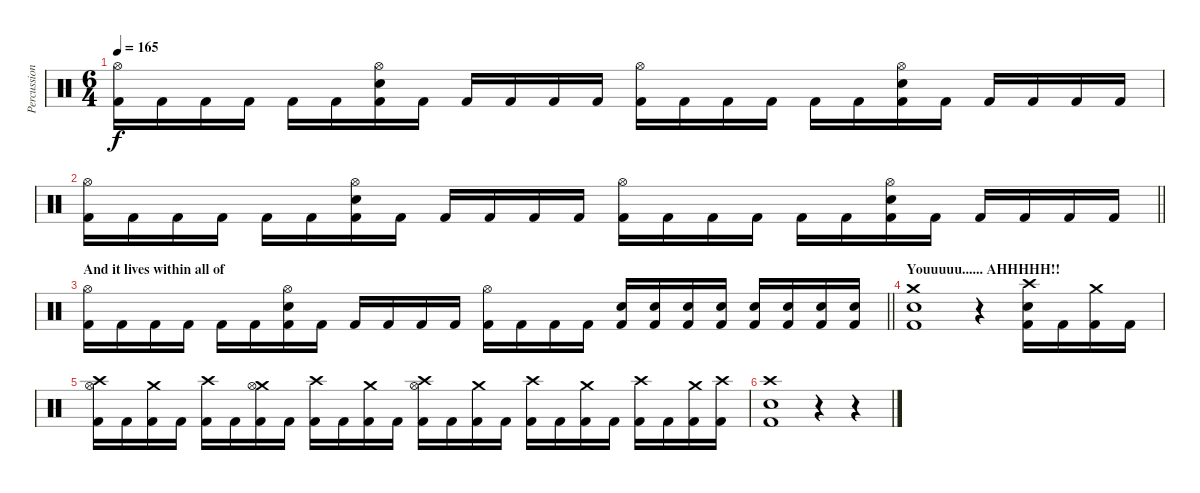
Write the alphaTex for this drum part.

\track ("Percussion" "Percussion") {instrument percussion}
\staff {score}
\articulation defaults
\ts (6 4)
\tempo 165
\clef neutral
\ks c
("Hi-Hat (open)" "Kick (hit) 2").16{dy f} "Kick (hit) 2".16 "Kick (hit) 2".16 "Kick (hit) 2".16 "Kick (hit) 2".16 "Kick (hit) 2".16 ("Hi-Hat (open)" "Electric Snare (hit)" "Kick (hit) 2").16 "Kick (hit) 2".16 "Kick (hit) 2".16 "Kick (hit) 2".16 "Kick (hit) 2".16 "Kick (hit) 2".16 ("Hi-Hat (open)" "Kick (hit) 2").16 "Kick (hit) 2".16 "Kick (hit) 2".16 "Kick (hit) 2".16 "Kick (hit) 2".16 "Kick (hit) 2".16 ("Hi-Hat (open)" "Electric Snare (hit)" "Kick (hit) 2").16 "Kick (hit) 2".16 "Kick (hit) 2".16 "Kick (hit) 2".16 "Kick (hit) 2".16 "Kick (hit) 2".16 |
\barLineRight lightlight
("Hi-Hat (open)" "Kick (hit) 2").16 "Kick (hit) 2".16 "Kick (hit) 2".16 "Kick (hit) 2".16 "Kick (hit) 2".16 "Kick (hit) 2".16 ("Hi-Hat (open)" "Electric Snare (hit)" "Kick (hit) 2").16 "Kick (hit) 2".16 "Kick (hit) 2".16 "Kick (hit) 2".16 "Kick (hit) 2".16 "Kick (hit) 2".16 ("Hi-Hat (open)" "Kick (hit) 2").16 "Kick (hit) 2".16 "Kick (hit) 2".16 "Kick (hit) 2".16 "Kick (hit) 2".16 "Kick (hit) 2".16 ("Hi-Hat (open)" "Electric Snare (hit)" "Kick (hit) 2").16 "Kick (hit) 2".16 "Kick (hit) 2".16 "Kick (hit) 2".16 "Kick (hit) 2".16 "Kick (hit) 2".16 |
\section ("" "And it lives within all of")
\barLineRight lightlight
("Hi-Hat (open)" "Kick (hit) 2").16 "Kick (hit) 2".16 "Kick (hit) 2".16 "Kick (hit) 2".16 "Kick (hit) 2".16 "Kick (hit) 2".16 ("Hi-Hat (open)" "Electric Snare (hit)" "Kick (hit) 2").16 "Kick (hit) 2".16 "Kick (hit) 2".16 "Kick (hit) 2".16 "Kick (hit) 2".16 "Kick (hit) 2".16 ("Hi-Hat (open)" "Kick (hit) 2").16 "Kick (hit) 2".16 "Kick (hit) 2".16 "Kick (hit) 2".16 ("Electric Snare (hit)" "Kick (hit) 2").16 ("Electric Snare (hit)" "Kick (hit) 2").16 ("Electric Snare (hit)" "Kick (hit) 2").16 ("Electric Snare (hit)" "Kick (hit) 2").16 ("Electric Snare (hit)" "Kick (hit) 2").16 ("Electric Snare (hit)" "Kick (hit) 2").16 ("Electric Snare (hit)" "Kick (hit) 2").16 ("Electric Snare (hit)" "Kick (hit) 2").16 |
\section ("" "Youuuuu...... AHHHHH!!")
("Crash medium (hit)" "Electric Snare (hit)" "Kick (hit) 2").1 r.4 ("Crash high (hit)" "Electric Snare (hit)" "Kick (hit) 2").16 "Kick (hit) 2".16 ("Crash medium (hit)" "Kick (hit) 2").16 "Kick (hit) 2".16 |
("Crash high (hit)" "Hi-Hat (open)" "Kick (hit) 2").16 "Kick (hit) 2".16 ("Crash medium (hit)" "Kick (hit) 2").16 "Kick (hit) 2".16 ("Crash high (hit)" "Kick (hit) 2").16 "Kick (hit) 2".16 ("Crash medium (hit)" "Hi-Hat (open)" "Kick (hit) 2").16 "Kick (hit) 2".16 ("Crash high (hit)" "Kick (hit) 2").16 "Kick (hit) 2".16 ("Crash medium (hit)" "Kick (hit) 2").16 "Kick (hit) 2".16 ("Crash high (hit)" "Hi-Hat (open)" "Kick (hit) 2").16 "Kick (hit) 2".16 ("Crash medium (hit)" "Kick (hit) 2").16 "Kick (hit) 2".16 ("Crash high (hit)" "Kick (hit) 2").16 "Kick (hit) 2".16 ("Crash medium (hit)" "Kick (hit) 2").16 "Kick (hit) 2".16 ("Crash high (hit)" "Kick (hit) 2").16 "Kick (hit) 2".16 ("Crash medium (hit)" "Kick (hit) 2").16 ("Crash high (hit)" "Kick (hit) 2").16 |
("Crash high (hit)" "Kick (hit) 2" "Electric Snare (hit)").1 r.4 r.4
